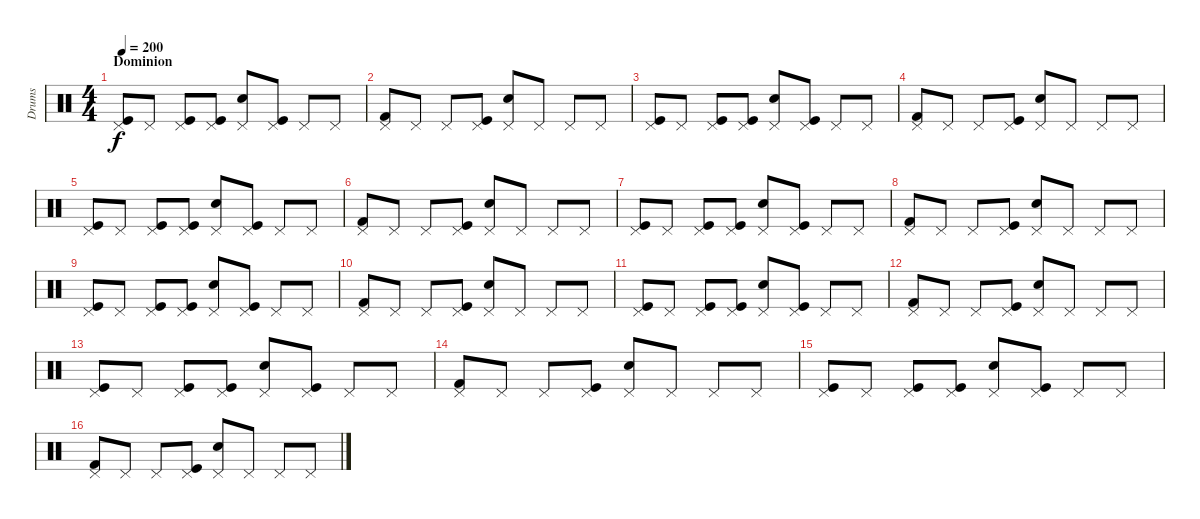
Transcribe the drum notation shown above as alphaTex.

\track ("Drums" "Drums") {instrument percussion}
\staff {score}
\articulation defaults
\ts (4 4)
\section ("" "Dominion")
\tempo 200
\clef neutral
\ks c
("Kick (hit)" "Pedal Hi-Hat (hit)").8{dy f} "Pedal Hi-Hat (hit)".8 ("Kick (hit)" "Pedal Hi-Hat (hit)").8 ("Kick (hit)" "Pedal Hi-Hat (hit)").8 ("Snare (hit) 2" "Pedal Hi-Hat (hit)").8 ("Kick (hit)" "Pedal Hi-Hat (hit)").8 "Pedal Hi-Hat (hit)".8 "Pedal Hi-Hat (hit)".8 |
("Kick (hit) 2" "Pedal Hi-Hat (hit)").8 "Pedal Hi-Hat (hit)".8 "Pedal Hi-Hat (hit)".8 ("Kick (hit)" "Pedal Hi-Hat (hit)").8 ("Snare (hit) 2" "Pedal Hi-Hat (hit)").8 "Pedal Hi-Hat (hit)".8 "Pedal Hi-Hat (hit)".8 "Pedal Hi-Hat (hit)".8 |
("Kick (hit)" "Pedal Hi-Hat (hit)").8 "Pedal Hi-Hat (hit)".8 ("Kick (hit)" "Pedal Hi-Hat (hit)").8 ("Kick (hit)" "Pedal Hi-Hat (hit)").8 ("Snare (hit) 2" "Pedal Hi-Hat (hit)").8 ("Kick (hit)" "Pedal Hi-Hat (hit)").8 "Pedal Hi-Hat (hit)".8 "Pedal Hi-Hat (hit)".8 |
("Kick (hit) 2" "Pedal Hi-Hat (hit)").8 "Pedal Hi-Hat (hit)".8 "Pedal Hi-Hat (hit)".8 ("Kick (hit)" "Pedal Hi-Hat (hit)").8 ("Snare (hit) 2" "Pedal Hi-Hat (hit)").8 "Pedal Hi-Hat (hit)".8 "Pedal Hi-Hat (hit)".8 "Pedal Hi-Hat (hit)".8 |
("Kick (hit)" "Pedal Hi-Hat (hit)").8 "Pedal Hi-Hat (hit)".8 ("Kick (hit)" "Pedal Hi-Hat (hit)").8 ("Kick (hit)" "Pedal Hi-Hat (hit)").8 ("Snare (hit) 2" "Pedal Hi-Hat (hit)").8 ("Kick (hit)" "Pedal Hi-Hat (hit)").8 "Pedal Hi-Hat (hit)".8 "Pedal Hi-Hat (hit)".8 |
("Kick (hit) 2" "Pedal Hi-Hat (hit)").8 "Pedal Hi-Hat (hit)".8 "Pedal Hi-Hat (hit)".8 ("Kick (hit)" "Pedal Hi-Hat (hit)").8 ("Snare (hit) 2" "Pedal Hi-Hat (hit)").8 "Pedal Hi-Hat (hit)".8 "Pedal Hi-Hat (hit)".8 "Pedal Hi-Hat (hit)".8 |
("Kick (hit)" "Pedal Hi-Hat (hit)").8 "Pedal Hi-Hat (hit)".8 ("Kick (hit)" "Pedal Hi-Hat (hit)").8 ("Kick (hit)" "Pedal Hi-Hat (hit)").8 ("Snare (hit) 2" "Pedal Hi-Hat (hit)").8 ("Kick (hit)" "Pedal Hi-Hat (hit)").8 "Pedal Hi-Hat (hit)".8 "Pedal Hi-Hat (hit)".8 |
("Kick (hit) 2" "Pedal Hi-Hat (hit)").8 "Pedal Hi-Hat (hit)".8 "Pedal Hi-Hat (hit)".8 ("Kick (hit)" "Pedal Hi-Hat (hit)").8 ("Snare (hit) 2" "Pedal Hi-Hat (hit)").8 "Pedal Hi-Hat (hit)".8 "Pedal Hi-Hat (hit)".8 "Pedal Hi-Hat (hit)".8 |
("Kick (hit)" "Pedal Hi-Hat (hit)").8 "Pedal Hi-Hat (hit)".8 ("Kick (hit)" "Pedal Hi-Hat (hit)").8 ("Kick (hit)" "Pedal Hi-Hat (hit)").8 ("Snare (hit) 2" "Pedal Hi-Hat (hit)").8 ("Kick (hit)" "Pedal Hi-Hat (hit)").8 "Pedal Hi-Hat (hit)".8 "Pedal Hi-Hat (hit)".8 |
("Kick (hit) 2" "Pedal Hi-Hat (hit)").8 "Pedal Hi-Hat (hit)".8 "Pedal Hi-Hat (hit)".8 ("Kick (hit)" "Pedal Hi-Hat (hit)").8 ("Snare (hit) 2" "Pedal Hi-Hat (hit)").8 "Pedal Hi-Hat (hit)".8 "Pedal Hi-Hat (hit)".8 "Pedal Hi-Hat (hit)".8 |
("Kick (hit)" "Pedal Hi-Hat (hit)").8 "Pedal Hi-Hat (hit)".8 ("Kick (hit)" "Pedal Hi-Hat (hit)").8 ("Kick (hit)" "Pedal Hi-Hat (hit)").8 ("Snare (hit) 2" "Pedal Hi-Hat (hit)").8 ("Kick (hit)" "Pedal Hi-Hat (hit)").8 "Pedal Hi-Hat (hit)".8 "Pedal Hi-Hat (hit)".8 |
("Kick (hit) 2" "Pedal Hi-Hat (hit)").8 "Pedal Hi-Hat (hit)".8 "Pedal Hi-Hat (hit)".8 ("Kick (hit)" "Pedal Hi-Hat (hit)").8 ("Snare (hit) 2" "Pedal Hi-Hat (hit)").8 "Pedal Hi-Hat (hit)".8 "Pedal Hi-Hat (hit)".8 "Pedal Hi-Hat (hit)".8 |
("Kick (hit)" "Pedal Hi-Hat (hit)").8 "Pedal Hi-Hat (hit)".8 ("Kick (hit)" "Pedal Hi-Hat (hit)").8 ("Kick (hit)" "Pedal Hi-Hat (hit)").8 ("Snare (hit) 2" "Pedal Hi-Hat (hit)").8 ("Kick (hit)" "Pedal Hi-Hat (hit)").8 "Pedal Hi-Hat (hit)".8 "Pedal Hi-Hat (hit)".8 |
("Kick (hit) 2" "Pedal Hi-Hat (hit)").8 "Pedal Hi-Hat (hit)".8 "Pedal Hi-Hat (hit)".8 ("Kick (hit)" "Pedal Hi-Hat (hit)").8 ("Snare (hit) 2" "Pedal Hi-Hat (hit)").8 "Pedal Hi-Hat (hit)".8 "Pedal Hi-Hat (hit)".8 "Pedal Hi-Hat (hit)".8 |
("Kick (hit)" "Pedal Hi-Hat (hit)").8 "Pedal Hi-Hat (hit)".8 ("Kick (hit)" "Pedal Hi-Hat (hit)").8 ("Kick (hit)" "Pedal Hi-Hat (hit)").8 ("Snare (hit) 2" "Pedal Hi-Hat (hit)").8 ("Kick (hit)" "Pedal Hi-Hat (hit)").8 "Pedal Hi-Hat (hit)".8 "Pedal Hi-Hat (hit)".8 |
("Kick (hit) 2" "Pedal Hi-Hat (hit)").8 "Pedal Hi-Hat (hit)".8 "Pedal Hi-Hat (hit)".8 ("Kick (hit)" "Pedal Hi-Hat (hit)").8 ("Snare (hit) 2" "Pedal Hi-Hat (hit)").8 "Pedal Hi-Hat (hit)".8 "Pedal Hi-Hat (hit)".8 "Pedal Hi-Hat (hit)".8
